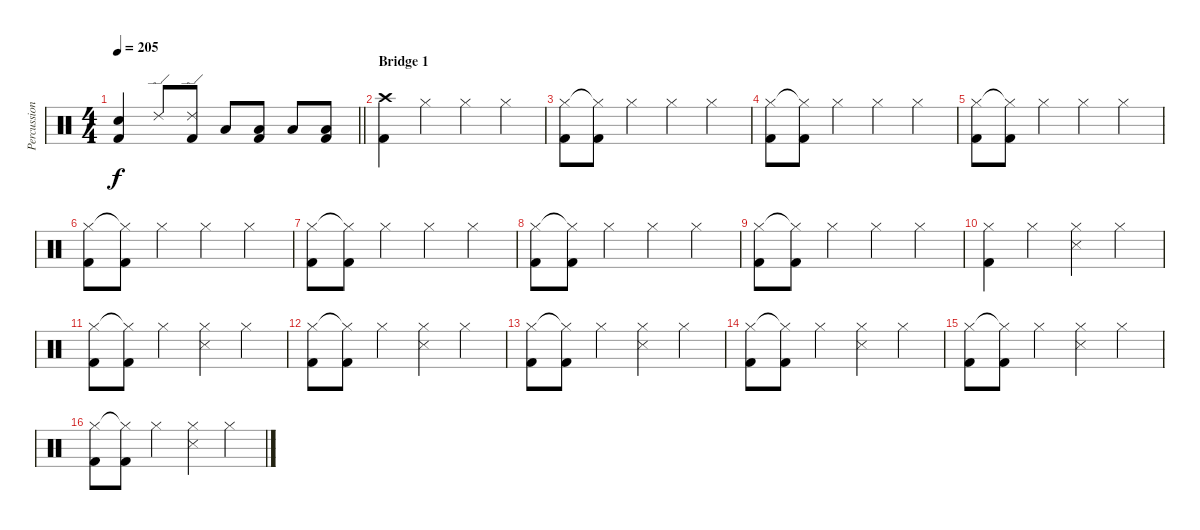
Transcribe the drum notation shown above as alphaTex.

\track ("Percussion" "Percussion") {instrument percussion}
\staff {score}
\articulation defaults
\ts (4 4)
\tempo 205
\clef neutral
\barLineRight lightlight
\ks c
("Electric Snare (hit)" "Kick (hit) 2").4{dy f} "Ride (edge) 2".8 ("Ride (edge) 2" "Kick (hit) 2").8 "Low Floor Tom (hit)".8 ("Low Floor Tom (hit)" "Kick (hit) 2").8 "Low Floor Tom (hit)".8 ("Low Floor Tom (hit)" "Kick (hit) 2").8 |
\section ("" "Bridge 1")
("Crash high (hit)" "Kick (hit) 2").4 "Hi-Hat (closed)".4 "Hi-Hat (closed)".4 "Hi-Hat (closed)".4 |
("Hi-Hat (closed)" "Kick (hit) 2").8 ("Hi-Hat (closed)"{t} "Kick (hit) 2").8 "Hi-Hat (closed)".4 "Hi-Hat (closed)".4 "Hi-Hat (closed)".4 |
("Hi-Hat (closed)" "Kick (hit) 2").8 ("Hi-Hat (closed)"{t} "Kick (hit) 2").8 "Hi-Hat (closed)".4 "Hi-Hat (closed)".4 "Hi-Hat (closed)".4 |
("Hi-Hat (closed)" "Kick (hit) 2").8 ("Hi-Hat (closed)"{t} "Kick (hit) 2").8 "Hi-Hat (closed)".4 "Hi-Hat (closed)".4 "Hi-Hat (closed)".4 |
("Hi-Hat (closed)" "Kick (hit) 2").8 ("Hi-Hat (closed)"{t} "Kick (hit) 2").8 "Hi-Hat (closed)".4 "Hi-Hat (closed)".4 "Hi-Hat (closed)".4 |
("Hi-Hat (closed)" "Kick (hit) 2").8 ("Hi-Hat (closed)"{t} "Kick (hit) 2").8 "Hi-Hat (closed)".4 "Hi-Hat (closed)".4 "Hi-Hat (closed)".4 |
("Hi-Hat (closed)" "Kick (hit) 2").8 ("Hi-Hat (closed)"{t} "Kick (hit) 2").8 "Hi-Hat (closed)".4 "Hi-Hat (closed)".4 "Hi-Hat (closed)".4 |
("Hi-Hat (closed)" "Kick (hit) 2").8 ("Hi-Hat (closed)"{t} "Kick (hit) 2").8 "Hi-Hat (closed)".4 "Hi-Hat (closed)".4 "Hi-Hat (closed)".4 |
("Hi-Hat (closed)" "Kick (hit) 2").4 "Hi-Hat (closed)".4 ("Snare (side stick) 3" "Hi-Hat (closed)").4 "Hi-Hat (closed)".4 |
("Hi-Hat (closed)" "Kick (hit) 2").8 ("Hi-Hat (closed)"{t} "Kick (hit) 2").8 "Hi-Hat (closed)".4 ("Snare (side stick) 3" "Hi-Hat (closed)").4 "Hi-Hat (closed)".4 |
("Hi-Hat (closed)" "Kick (hit) 2").8 ("Hi-Hat (closed)"{t} "Kick (hit) 2").8 "Hi-Hat (closed)".4 ("Snare (side stick) 3" "Hi-Hat (closed)").4 "Hi-Hat (closed)".4 |
("Hi-Hat (closed)" "Kick (hit) 2").8 ("Hi-Hat (closed)"{t} "Kick (hit) 2").8 "Hi-Hat (closed)".4 ("Snare (side stick) 3" "Hi-Hat (closed)").4 "Hi-Hat (closed)".4 |
("Hi-Hat (closed)" "Kick (hit) 2").8 ("Hi-Hat (closed)"{t} "Kick (hit) 2").8 "Hi-Hat (closed)".4 ("Snare (side stick) 3" "Hi-Hat (closed)").4 "Hi-Hat (closed)".4 |
("Hi-Hat (closed)" "Kick (hit) 2").8 ("Hi-Hat (closed)"{t} "Kick (hit) 2").8 "Hi-Hat (closed)".4 ("Snare (side stick) 3" "Hi-Hat (closed)").4 "Hi-Hat (closed)".4 |
("Hi-Hat (closed)" "Kick (hit) 2").8 ("Hi-Hat (closed)"{t} "Kick (hit) 2").8 "Hi-Hat (closed)".4 ("Snare (side stick) 3" "Hi-Hat (closed)").4 "Hi-Hat (closed)".4
